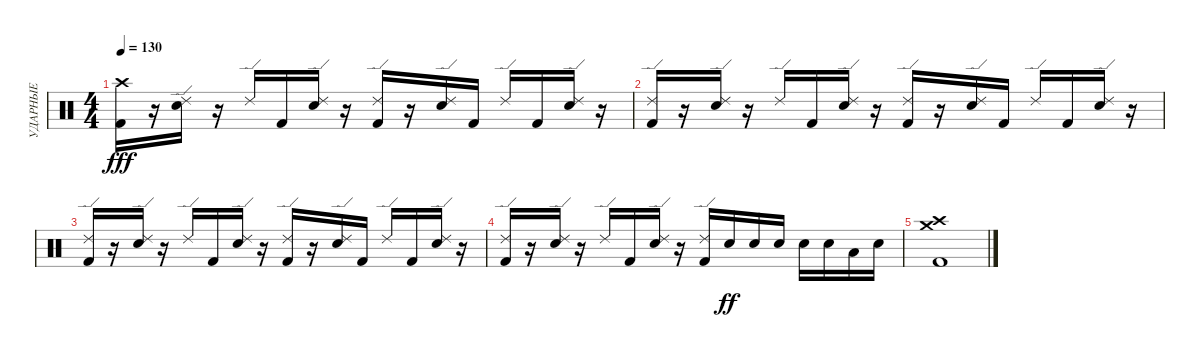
\track ("УДАРНЫЕ" "УДАРНЫЕ") {instrument percussion}
\staff {score}
\articulation defaults
\ts (4 4)
\tempo 130
\clef neutral
\ks c
("Crash high (hit)" "Kick (hit) 2").16{dy fff} r.16 ("Snare (hit) 2" "Ride (edge) 2").16 r.16 "Ride (edge) 2".16 "Kick (hit) 2".16 ("Snare (hit) 2" "Ride (edge) 2").16 r.16 ("Kick (hit) 2" "Ride (edge) 2").16 r.16 ("Snare (hit) 2" "Ride (edge) 2").16 "Kick (hit) 2".16 "Ride (edge) 2".16 "Kick (hit) 2".16 ("Snare (hit) 2" "Ride (edge) 2").16 r.16 |
("Ride (edge) 2" "Kick (hit) 2").16 r.16 ("Snare (hit) 2" "Ride (edge) 2").16 r.16 "Ride (edge) 2".16 "Kick (hit) 2".16 ("Snare (hit) 2" "Ride (edge) 2").16 r.16 ("Kick (hit) 2" "Ride (edge) 2").16 r.16 ("Snare (hit) 2" "Ride (edge) 2").16 "Kick (hit) 2".16 "Ride (edge) 2".16 "Kick (hit) 2".16 ("Snare (hit) 2" "Ride (edge) 2").16 r.16 |
("Ride (edge) 2" "Kick (hit) 2").16 r.16 ("Snare (hit) 2" "Ride (edge) 2").16 r.16 "Ride (edge) 2".16 "Kick (hit) 2".16 ("Snare (hit) 2" "Ride (edge) 2").16 r.16 ("Kick (hit) 2" "Ride (edge) 2").16 r.16 ("Snare (hit) 2" "Ride (edge) 2").16 "Kick (hit) 2".16 "Ride (edge) 2".16 "Kick (hit) 2".16 ("Snare (hit) 2" "Ride (edge) 2").16 r.16 |
("Ride (edge) 2" "Kick (hit) 2").16 r.16 ("Snare (hit) 2" "Ride (edge) 2").16 r.16 "Ride (edge) 2".16 "Kick (hit) 2".16 ("Snare (hit) 2" "Ride (edge) 2").16 r.16 ("Kick (hit) 2" "Ride (edge) 2").16 "Snare (hit) 2".16{dy ff} "Snare (hit) 2".16 "Snare (hit) 2".16 "Snare (hit) 2".16 "Snare (hit) 2".16 "Low Tom (hit)".16 "Snare (hit) 2".16 |
("Kick (hit) 2" "Crash high (hit)" "Crash medium (hit)").1
